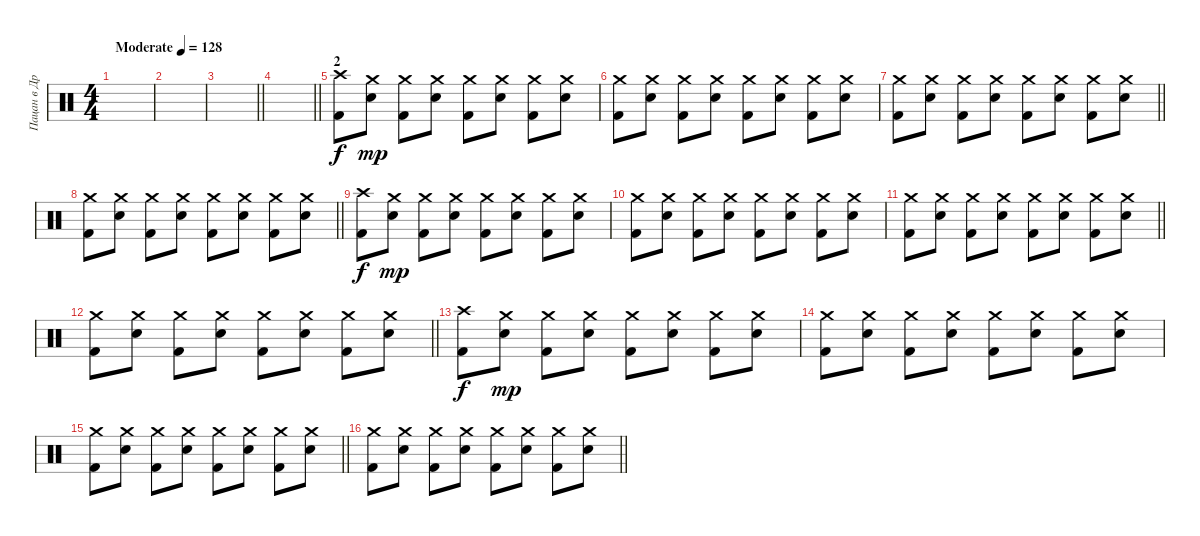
\track ("Пацан в Дредах" "Пацан в Др") {instrument percussion}
\staff {score}
\articulation defaults
\ts (4 4)
\tempo (128 "Moderate")
\clef neutral
\ks c
|
|
\barLineRight lightlight
|
\section ("" "")
\barLineRight lightlight
|
\section ("" "2")
("Crash high (hit)" "Kick (hit) 2").8 ("Crash medium (hit)" "Electric Snare (hit)").8{dy mp} ("Crash medium (hit)" "Kick (hit) 2").8 ("Crash medium (hit)" "Electric Snare (hit)").8 ("Crash medium (hit)" "Kick (hit) 2").8 ("Crash medium (hit)" "Electric Snare (hit)").8 ("Crash medium (hit)" "Kick (hit) 2").8 ("Crash medium (hit)" "Electric Snare (hit)").8 |
("Crash medium (hit)" "Kick (hit) 2").8 ("Crash medium (hit)" "Electric Snare (hit)").8 ("Crash medium (hit)" "Kick (hit) 2").8 ("Crash medium (hit)" "Electric Snare (hit)").8 ("Crash medium (hit)" "Kick (hit) 2").8 ("Crash medium (hit)" "Electric Snare (hit)").8 ("Crash medium (hit)" "Kick (hit) 2").8 ("Crash medium (hit)" "Electric Snare (hit)").8 |
\barLineRight lightlight
("Crash medium (hit)" "Kick (hit) 2").8 ("Crash medium (hit)" "Electric Snare (hit)").8 ("Crash medium (hit)" "Kick (hit) 2").8 ("Crash medium (hit)" "Electric Snare (hit)").8 ("Crash medium (hit)" "Kick (hit) 2").8 ("Crash medium (hit)" "Electric Snare (hit)").8 ("Crash medium (hit)" "Kick (hit) 2").8 ("Crash medium (hit)" "Electric Snare (hit)").8 |
\barLineRight lightlight
("Crash medium (hit)" "Kick (hit) 2").8 ("Crash medium (hit)" "Electric Snare (hit)").8 ("Crash medium (hit)" "Kick (hit) 2").8 ("Crash medium (hit)" "Electric Snare (hit)").8 ("Crash medium (hit)" "Kick (hit) 2").8 ("Crash medium (hit)" "Electric Snare (hit)").8 ("Crash medium (hit)" "Kick (hit) 2").8 ("Crash medium (hit)" "Electric Snare (hit)").8 |
("Crash high (hit)" "Kick (hit) 2").8{dy f} ("Crash medium (hit)" "Electric Snare (hit)").8{dy mp} ("Crash medium (hit)" "Kick (hit) 2").8 ("Crash medium (hit)" "Electric Snare (hit)").8 ("Crash medium (hit)" "Kick (hit) 2").8 ("Crash medium (hit)" "Electric Snare (hit)").8 ("Crash medium (hit)" "Kick (hit) 2").8 ("Crash medium (hit)" "Electric Snare (hit)").8 |
("Crash medium (hit)" "Kick (hit) 2").8 ("Crash medium (hit)" "Electric Snare (hit)").8 ("Crash medium (hit)" "Kick (hit) 2").8 ("Crash medium (hit)" "Electric Snare (hit)").8 ("Crash medium (hit)" "Kick (hit) 2").8 ("Crash medium (hit)" "Electric Snare (hit)").8 ("Crash medium (hit)" "Kick (hit) 2").8 ("Crash medium (hit)" "Electric Snare (hit)").8 |
\barLineRight lightlight
("Crash medium (hit)" "Kick (hit) 2").8 ("Crash medium (hit)" "Electric Snare (hit)").8 ("Crash medium (hit)" "Kick (hit) 2").8 ("Crash medium (hit)" "Electric Snare (hit)").8 ("Crash medium (hit)" "Kick (hit) 2").8 ("Crash medium (hit)" "Electric Snare (hit)").8 ("Crash medium (hit)" "Kick (hit) 2").8 ("Crash medium (hit)" "Electric Snare (hit)").8 |
\barLineRight lightlight
("Crash medium (hit)" "Kick (hit) 2").8 ("Crash medium (hit)" "Electric Snare (hit)").8 ("Crash medium (hit)" "Kick (hit) 2").8 ("Crash medium (hit)" "Electric Snare (hit)").8 ("Crash medium (hit)" "Kick (hit) 2").8 ("Crash medium (hit)" "Electric Snare (hit)").8 ("Crash medium (hit)" "Kick (hit) 2").8 ("Crash medium (hit)" "Electric Snare (hit)").8 |
("Crash high (hit)" "Kick (hit) 2").8{dy f} ("Crash medium (hit)" "Electric Snare (hit)").8{dy mp} ("Crash medium (hit)" "Kick (hit) 2").8 ("Crash medium (hit)" "Electric Snare (hit)").8 ("Crash medium (hit)" "Kick (hit) 2").8 ("Crash medium (hit)" "Electric Snare (hit)").8 ("Crash medium (hit)" "Kick (hit) 2").8 ("Crash medium (hit)" "Electric Snare (hit)").8 |
("Crash medium (hit)" "Kick (hit) 2").8 ("Crash medium (hit)" "Electric Snare (hit)").8 ("Crash medium (hit)" "Kick (hit) 2").8 ("Crash medium (hit)" "Electric Snare (hit)").8 ("Crash medium (hit)" "Kick (hit) 2").8 ("Crash medium (hit)" "Electric Snare (hit)").8 ("Crash medium (hit)" "Kick (hit) 2").8 ("Crash medium (hit)" "Electric Snare (hit)").8 |
\barLineRight lightlight
("Crash medium (hit)" "Kick (hit) 2").8 ("Crash medium (hit)" "Electric Snare (hit)").8 ("Crash medium (hit)" "Kick (hit) 2").8 ("Crash medium (hit)" "Electric Snare (hit)").8 ("Crash medium (hit)" "Kick (hit) 2").8 ("Crash medium (hit)" "Electric Snare (hit)").8 ("Crash medium (hit)" "Kick (hit) 2").8 ("Crash medium (hit)" "Electric Snare (hit)").8 |
\barLineRight lightlight
("Crash medium (hit)" "Kick (hit) 2").8 ("Crash medium (hit)" "Electric Snare (hit)").8 ("Crash medium (hit)" "Kick (hit) 2").8 ("Crash medium (hit)" "Electric Snare (hit)").8 ("Crash medium (hit)" "Kick (hit) 2").8 ("Crash medium (hit)" "Electric Snare (hit)").8 ("Crash medium (hit)" "Kick (hit) 2").8 ("Crash medium (hit)" "Electric Snare (hit)").8
